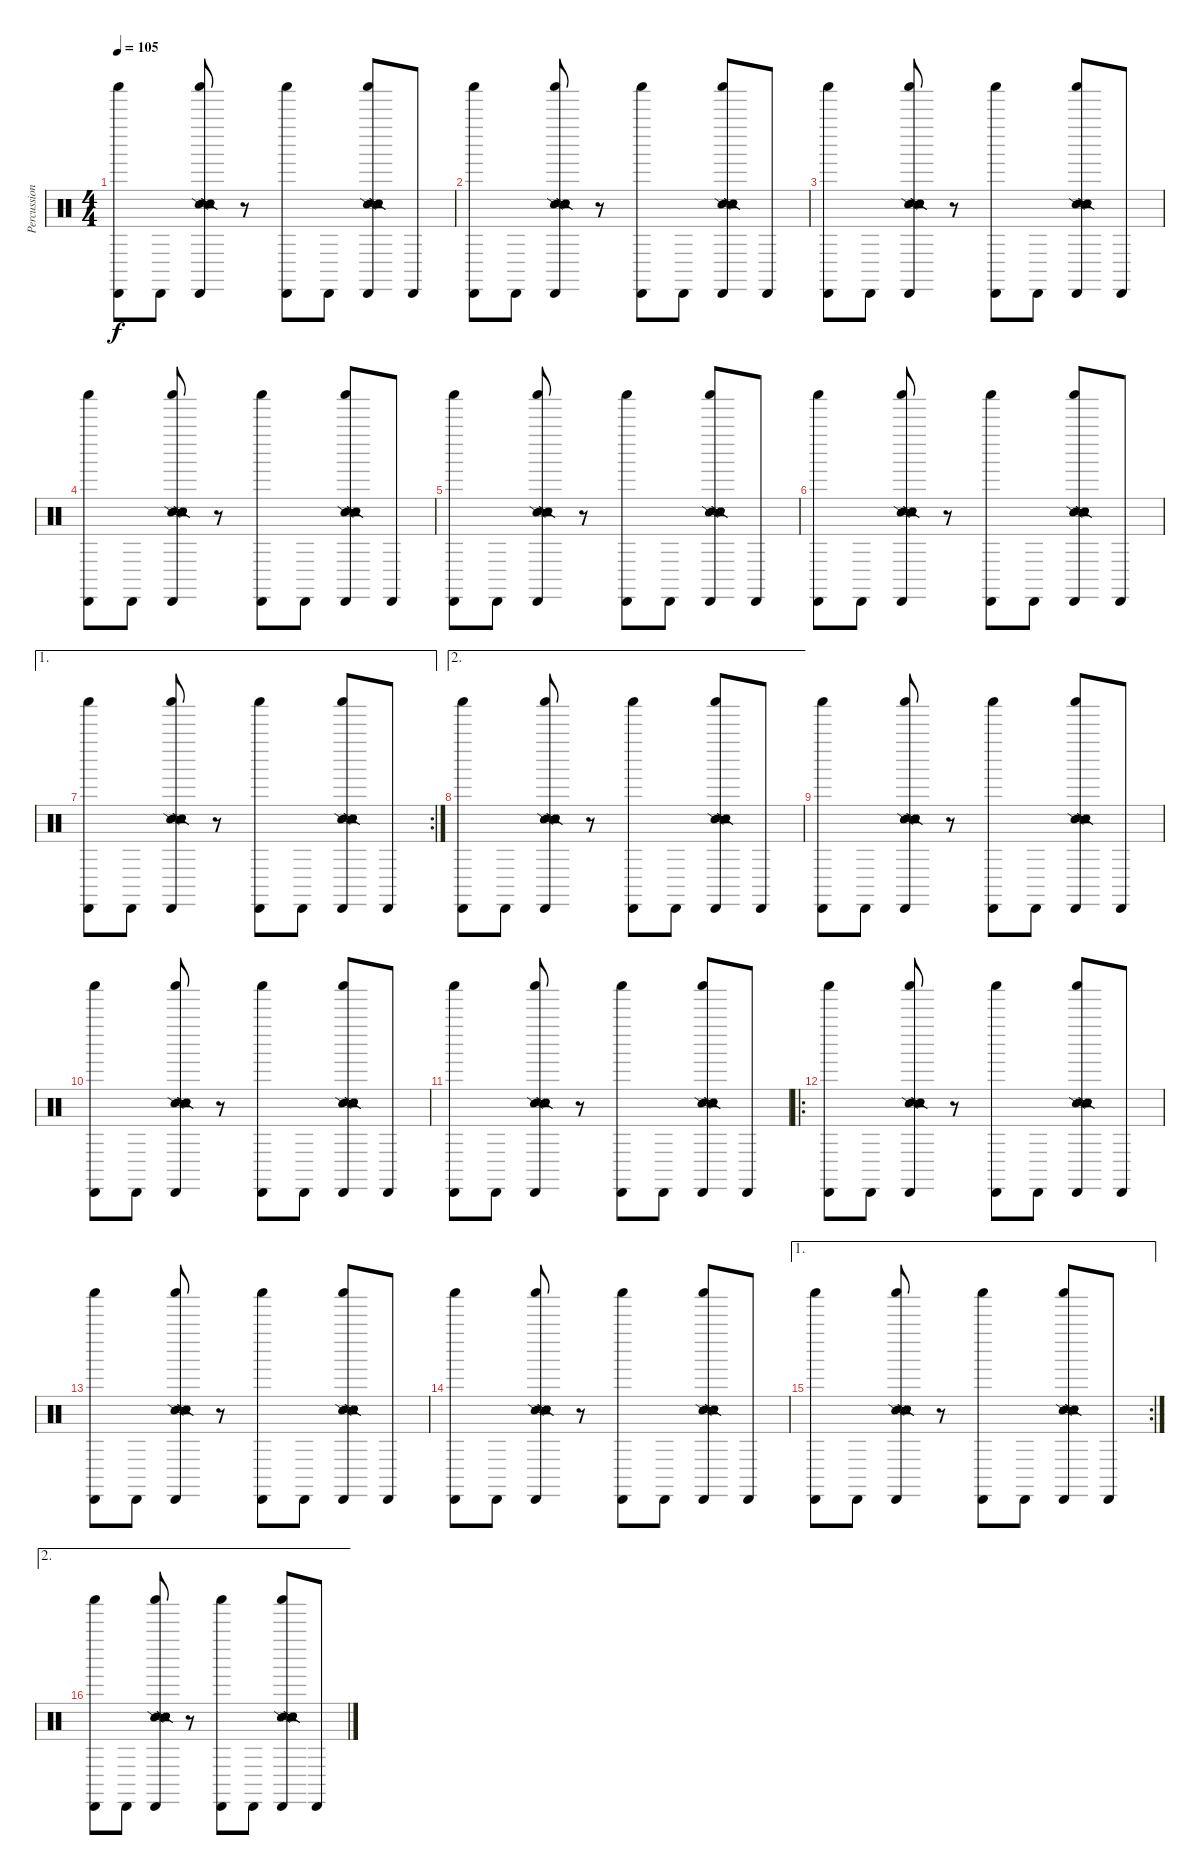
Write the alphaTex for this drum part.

\track ("Percussions" "Percussion") {instrument percussion}
\staff {score}
\articulation defaults
\ts (4 4)
\tempo 105
\clef neutral
\ks c
("Cabasa (hit)" "Shaker (hit)").8{dy f} "Cabasa (hit)".8 ("Cabasa (hit)" "Shaker (hit)" "Snare (side stick) 2" "Snare (side stick) 2" "Snare (side stick) 2" "Tambourine (hit)").8 r.8 ("Cabasa (hit)" "Shaker (hit)").8 "Cabasa (hit)".8 ("Cabasa (hit)" "Shaker (hit)" "Snare (side stick) 2" "Snare (side stick) 2" "Snare (side stick) 2" "Tambourine (hit)").8 "Cabasa (hit)".8 |
("Cabasa (hit)" "Shaker (hit)").8 "Cabasa (hit)".8 ("Cabasa (hit)" "Shaker (hit)" "Snare (side stick) 2" "Snare (side stick) 2" "Snare (side stick) 2" "Tambourine (hit)").8 r.8 ("Cabasa (hit)" "Shaker (hit)").8 "Cabasa (hit)".8 ("Cabasa (hit)" "Shaker (hit)" "Snare (side stick) 2" "Snare (side stick) 2" "Snare (side stick) 2" "Tambourine (hit)").8 "Cabasa (hit)".8 |
("Cabasa (hit)" "Shaker (hit)").8 "Cabasa (hit)".8 ("Cabasa (hit)" "Shaker (hit)" "Snare (side stick) 2" "Snare (side stick) 2" "Snare (side stick) 2" "Tambourine (hit)").8 r.8 ("Cabasa (hit)" "Shaker (hit)").8 "Cabasa (hit)".8 ("Cabasa (hit)" "Shaker (hit)" "Snare (side stick) 2" "Snare (side stick) 2" "Snare (side stick) 2" "Tambourine (hit)").8 "Cabasa (hit)".8 |
("Cabasa (hit)" "Shaker (hit)").8 "Cabasa (hit)".8 ("Cabasa (hit)" "Shaker (hit)" "Snare (side stick) 2" "Snare (side stick) 2" "Snare (side stick) 2" "Tambourine (hit)").8 r.8 ("Cabasa (hit)" "Shaker (hit)").8 "Cabasa (hit)".8 ("Cabasa (hit)" "Shaker (hit)" "Snare (side stick) 2" "Snare (side stick) 2" "Snare (side stick) 2" "Tambourine (hit)").8 "Cabasa (hit)".8 |
("Cabasa (hit)" "Shaker (hit)").8 "Cabasa (hit)".8 ("Cabasa (hit)" "Shaker (hit)" "Snare (side stick) 2" "Snare (side stick) 2" "Snare (side stick) 2" "Tambourine (hit)").8 r.8 ("Cabasa (hit)" "Shaker (hit)").8 "Cabasa (hit)".8 ("Cabasa (hit)" "Shaker (hit)" "Snare (side stick) 2" "Snare (side stick) 2" "Snare (side stick) 2" "Tambourine (hit)").8 "Cabasa (hit)".8 |
("Cabasa (hit)" "Shaker (hit)").8 "Cabasa (hit)".8 ("Cabasa (hit)" "Shaker (hit)" "Snare (side stick) 2" "Snare (side stick) 2" "Snare (side stick) 2" "Tambourine (hit)").8 r.8 ("Cabasa (hit)" "Shaker (hit)").8 "Cabasa (hit)".8 ("Cabasa (hit)" "Shaker (hit)" "Snare (side stick) 2" "Snare (side stick) 2" "Snare (side stick) 2" "Tambourine (hit)").8 "Cabasa (hit)".8 |
\ae 1
\rc 2
("Cabasa (hit)" "Shaker (hit)").8 "Cabasa (hit)".8 ("Cabasa (hit)" "Shaker (hit)" "Snare (side stick) 2" "Snare (side stick) 2" "Snare (side stick) 2" "Tambourine (hit)").8 r.8 ("Cabasa (hit)" "Shaker (hit)").8 "Cabasa (hit)".8 ("Cabasa (hit)" "Shaker (hit)" "Snare (side stick) 2" "Snare (side stick) 2" "Snare (side stick) 2" "Tambourine (hit)").8 "Cabasa (hit)".8 |
\ae 2
("Cabasa (hit)" "Shaker (hit)").8 "Cabasa (hit)".8 ("Cabasa (hit)" "Shaker (hit)" "Snare (side stick) 2" "Snare (side stick) 2" "Snare (side stick) 2" "Tambourine (hit)").8 r.8 ("Cabasa (hit)" "Shaker (hit)").8 "Cabasa (hit)".8 ("Cabasa (hit)" "Shaker (hit)" "Snare (side stick) 2" "Snare (side stick) 2" "Snare (side stick) 2" "Tambourine (hit)").8 "Cabasa (hit)".8 |
("Cabasa (hit)" "Shaker (hit)").8 "Cabasa (hit)".8 ("Cabasa (hit)" "Shaker (hit)" "Snare (side stick) 2" "Snare (side stick) 2" "Snare (side stick) 2" "Tambourine (hit)").8 r.8 ("Cabasa (hit)" "Shaker (hit)").8 "Cabasa (hit)".8 ("Cabasa (hit)" "Shaker (hit)" "Snare (side stick) 2" "Snare (side stick) 2" "Snare (side stick) 2" "Tambourine (hit)").8 "Cabasa (hit)".8 |
("Cabasa (hit)" "Shaker (hit)").8 "Cabasa (hit)".8 ("Cabasa (hit)" "Shaker (hit)" "Snare (side stick) 2" "Snare (side stick) 2" "Snare (side stick) 2" "Tambourine (hit)").8 r.8 ("Cabasa (hit)" "Shaker (hit)").8 "Cabasa (hit)".8 ("Cabasa (hit)" "Shaker (hit)" "Snare (side stick) 2" "Snare (side stick) 2" "Snare (side stick) 2" "Tambourine (hit)").8 "Cabasa (hit)".8 |
("Cabasa (hit)" "Shaker (hit)").8 "Cabasa (hit)".8 ("Cabasa (hit)" "Shaker (hit)" "Snare (side stick) 2" "Snare (side stick) 2" "Snare (side stick) 2" "Tambourine (hit)").8 r.8 ("Cabasa (hit)" "Shaker (hit)").8 "Cabasa (hit)".8 ("Cabasa (hit)" "Shaker (hit)" "Snare (side stick) 2" "Snare (side stick) 2" "Snare (side stick) 2" "Tambourine (hit)").8 "Cabasa (hit)".8 |
\ro
("Cabasa (hit)" "Shaker (hit)").8 "Cabasa (hit)".8 ("Cabasa (hit)" "Shaker (hit)" "Snare (side stick) 2" "Snare (side stick) 2" "Snare (side stick) 2" "Tambourine (hit)").8 r.8 ("Cabasa (hit)" "Shaker (hit)").8 "Cabasa (hit)".8 ("Cabasa (hit)" "Shaker (hit)" "Snare (side stick) 2" "Snare (side stick) 2" "Snare (side stick) 2" "Tambourine (hit)").8 "Cabasa (hit)".8 |
("Cabasa (hit)" "Shaker (hit)").8 "Cabasa (hit)".8 ("Cabasa (hit)" "Shaker (hit)" "Snare (side stick) 2" "Snare (side stick) 2" "Snare (side stick) 2" "Tambourine (hit)").8 r.8 ("Cabasa (hit)" "Shaker (hit)").8 "Cabasa (hit)".8 ("Cabasa (hit)" "Shaker (hit)" "Snare (side stick) 2" "Snare (side stick) 2" "Snare (side stick) 2" "Tambourine (hit)").8 "Cabasa (hit)".8 |
("Cabasa (hit)" "Shaker (hit)").8 "Cabasa (hit)".8 ("Cabasa (hit)" "Shaker (hit)" "Snare (side stick) 2" "Snare (side stick) 2" "Snare (side stick) 2" "Tambourine (hit)").8 r.8 ("Cabasa (hit)" "Shaker (hit)").8 "Cabasa (hit)".8 ("Cabasa (hit)" "Shaker (hit)" "Snare (side stick) 2" "Snare (side stick) 2" "Snare (side stick) 2" "Tambourine (hit)").8 "Cabasa (hit)".8 |
\ae 1
\rc 2
("Cabasa (hit)" "Shaker (hit)").8 "Cabasa (hit)".8 ("Cabasa (hit)" "Shaker (hit)" "Snare (side stick) 2" "Snare (side stick) 2" "Snare (side stick) 2" "Tambourine (hit)").8 r.8 ("Cabasa (hit)" "Shaker (hit)").8 "Cabasa (hit)".8 ("Cabasa (hit)" "Shaker (hit)" "Snare (side stick) 2" "Snare (side stick) 2" "Snare (side stick) 2" "Tambourine (hit)").8 "Cabasa (hit)".8 |
\ae 2
("Cabasa (hit)" "Shaker (hit)").8 "Cabasa (hit)".8 ("Cabasa (hit)" "Shaker (hit)" "Snare (side stick) 2" "Snare (side stick) 2" "Snare (side stick) 2" "Tambourine (hit)").8 r.8 ("Cabasa (hit)" "Shaker (hit)").8 "Cabasa (hit)".8 ("Cabasa (hit)" "Shaker (hit)" "Snare (side stick) 2" "Snare (side stick) 2" "Snare (side stick) 2" "Tambourine (hit)").8 "Cabasa (hit)".8
